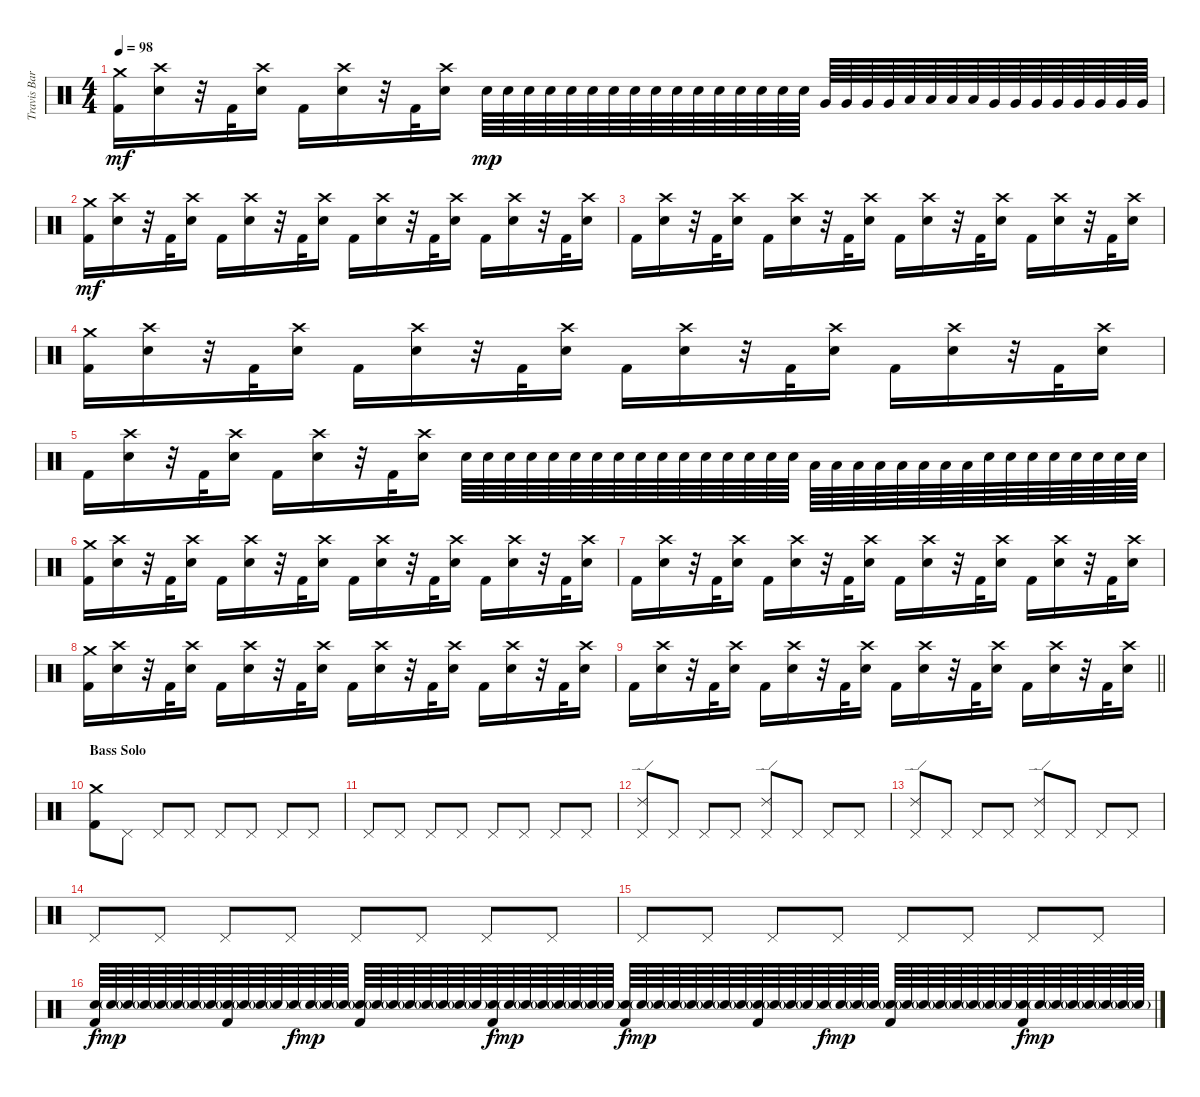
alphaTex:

\track ("Travis Barker" "Travis Bar") {instrument percussion}
\staff {score}
\articulation defaults
\ts (4 4)
\tempo 98
\clef neutral
\ks c
("Crash medium (hit)" "Kick (hit) 2").16{dy mf} ("Crash high (hit)" "Electric Snare (hit)").16 r.32 "Kick (hit) 2".32 ("Crash high (hit)" "Electric Snare (hit)").16 "Kick (hit) 2".16 ("Crash high (hit)" "Electric Snare (hit)").16 r.32 "Kick (hit) 2".32 ("Crash high (hit)" "Electric Snare (hit)").16 "Electric Snare (hit)".64{dy mp} "Electric Snare (hit)".64 "Electric Snare (hit)".64 "Electric Snare (hit)".64 "Electric Snare (hit)".64 "Electric Snare (hit)".64 "Electric Snare (hit)".64 "Electric Snare (hit)".64 "Electric Snare (hit)".64 "Electric Snare (hit)".64 "Electric Snare (hit)".64 "Electric Snare (hit)".64 "Electric Snare (hit)".64 "Electric Snare (hit)".64 "Electric Snare (hit)".64 "Electric Snare (hit)".64 "Very Low Tom (hit)".64 "Very Low Tom (hit)".64 "Very Low Tom (hit)".64 "Very Low Tom (hit)".64 "Low Tom (hit)".64 "Low Tom (hit)".64 "Low Tom (hit)".64 "Low Tom (hit)".64 "Very Low Tom (hit)".64 "Very Low Tom (hit)".64 "Very Low Tom (hit)".64 "Very Low Tom (hit)".64 "Very Low Tom (hit)".64 "Very Low Tom (hit)".64 "Very Low Tom (hit)".64 "Very Low Tom (hit)".64 |
("Crash medium (hit)" "Kick (hit) 2").16{dy mf} ("Crash high (hit)" "Electric Snare (hit)").16 r.32 "Kick (hit) 2".32 ("Crash high (hit)" "Electric Snare (hit)").16 "Kick (hit) 2".16 ("Crash high (hit)" "Electric Snare (hit)").16 r.32 "Kick (hit) 2".32 ("Crash high (hit)" "Electric Snare (hit)").16 "Kick (hit) 2".16 ("Crash high (hit)" "Electric Snare (hit)").16 r.32 "Kick (hit) 2".32 ("Crash high (hit)" "Electric Snare (hit)").16 "Kick (hit) 2".16 ("Crash high (hit)" "Electric Snare (hit)").16 r.32 "Kick (hit) 2".32 ("Crash high (hit)" "Electric Snare (hit)").16 |
"Kick (hit) 2".16 ("Crash high (hit)" "Electric Snare (hit)").16 r.32 "Kick (hit) 2".32 ("Crash high (hit)" "Electric Snare (hit)").16 "Kick (hit) 2".16 ("Crash high (hit)" "Electric Snare (hit)").16 r.32 "Kick (hit) 2".32 ("Crash high (hit)" "Electric Snare (hit)").16 "Kick (hit) 2".16 ("Crash high (hit)" "Electric Snare (hit)").16 r.32 "Kick (hit) 2".32 ("Crash high (hit)" "Electric Snare (hit)").16 "Kick (hit) 2".16 ("Crash high (hit)" "Electric Snare (hit)").16 r.32 "Kick (hit) 2".32 ("Crash high (hit)" "Electric Snare (hit)").16 |
("Crash medium (hit)" "Kick (hit) 2").16 ("Crash high (hit)" "Electric Snare (hit)").16 r.32 "Kick (hit) 2".32 ("Crash high (hit)" "Electric Snare (hit)").16 "Kick (hit) 2".16 ("Crash high (hit)" "Electric Snare (hit)").16 r.32 "Kick (hit) 2".32 ("Crash high (hit)" "Electric Snare (hit)").16 "Kick (hit) 2".16 ("Crash high (hit)" "Electric Snare (hit)").16 r.32 "Kick (hit) 2".32 ("Crash high (hit)" "Electric Snare (hit)").16 "Kick (hit) 2".16 ("Crash high (hit)" "Electric Snare (hit)").16 r.32 "Kick (hit) 2".32 ("Crash high (hit)" "Electric Snare (hit)").16 |
"Kick (hit) 2".16 ("Crash high (hit)" "Electric Snare (hit)").16 r.32 "Kick (hit) 2".32 ("Crash high (hit)" "Electric Snare (hit)").16 "Kick (hit) 2".16 ("Crash high (hit)" "Electric Snare (hit)").16 r.32 "Kick (hit) 2".32 ("Crash high (hit)" "Electric Snare (hit)").16 "Electric Snare (hit)".64 "Electric Snare (hit)".64 "Electric Snare (hit)".64 "Electric Snare (hit)".64 "Electric Snare (hit)".64 "Electric Snare (hit)".64 "Electric Snare (hit)".64 "Electric Snare (hit)".64 "Electric Snare (hit)".64 "Electric Snare (hit)".64 "Electric Snare (hit)".64 "Electric Snare (hit)".64 "Electric Snare (hit)".64 "Electric Snare (hit)".64 "Electric Snare (hit)".64 "Electric Snare (hit)".64 "Low Tom (hit)".64 "Low Tom (hit)".64 "Low Tom (hit)".64 "Low Tom (hit)".64 "Low Tom (hit)".64 "Low Tom (hit)".64 "Low Tom (hit)".64 "Low Tom (hit)".64 "Electric Snare (hit)".64 "Electric Snare (hit)".64 "Electric Snare (hit)".64 "Electric Snare (hit)".64 "Electric Snare (hit)".64 "Electric Snare (hit)".64 "Electric Snare (hit)".64 "Electric Snare (hit)".64 |
("Crash medium (hit)" "Kick (hit) 2").16 ("Crash high (hit)" "Electric Snare (hit)").16 r.32 "Kick (hit) 2".32 ("Crash high (hit)" "Electric Snare (hit)").16 "Kick (hit) 2".16 ("Crash high (hit)" "Electric Snare (hit)").16 r.32 "Kick (hit) 2".32 ("Crash high (hit)" "Electric Snare (hit)").16 "Kick (hit) 2".16 ("Crash high (hit)" "Electric Snare (hit)").16 r.32 "Kick (hit) 2".32 ("Crash high (hit)" "Electric Snare (hit)").16 "Kick (hit) 2".16 ("Crash high (hit)" "Electric Snare (hit)").16 r.32 "Kick (hit) 2".32 ("Crash high (hit)" "Electric Snare (hit)").16 |
"Kick (hit) 2".16 ("Crash high (hit)" "Electric Snare (hit)").16 r.32 "Kick (hit) 2".32 ("Crash high (hit)" "Electric Snare (hit)").16 "Kick (hit) 2".16 ("Crash high (hit)" "Electric Snare (hit)").16 r.32 "Kick (hit) 2".32 ("Crash high (hit)" "Electric Snare (hit)").16 "Kick (hit) 2".16 ("Crash high (hit)" "Electric Snare (hit)").16 r.32 "Kick (hit) 2".32 ("Crash high (hit)" "Electric Snare (hit)").16 "Kick (hit) 2".16 ("Crash high (hit)" "Electric Snare (hit)").16 r.32 "Kick (hit) 2".32 ("Crash high (hit)" "Electric Snare (hit)").16 |
("Crash medium (hit)" "Kick (hit) 2").16 ("Crash high (hit)" "Electric Snare (hit)").16 r.32 "Kick (hit) 2".32 ("Crash high (hit)" "Electric Snare (hit)").16 "Kick (hit) 2".16 ("Crash high (hit)" "Electric Snare (hit)").16 r.32 "Kick (hit) 2".32 ("Crash high (hit)" "Electric Snare (hit)").16 "Kick (hit) 2".16 ("Crash high (hit)" "Electric Snare (hit)").16 r.32 "Kick (hit) 2".32 ("Crash high (hit)" "Electric Snare (hit)").16 "Kick (hit) 2".16 ("Crash high (hit)" "Electric Snare (hit)").16 r.32 "Kick (hit) 2".32 ("Crash high (hit)" "Electric Snare (hit)").16 |
\barLineRight lightlight "Kick (hit) 2".16
("Crash high (hit)" "Electric Snare (hit)").16 r.32 "Kick (hit) 2".32 ("Crash high (hit)" "Electric Snare (hit)").16 "Kick (hit) 2".16 ("Crash high (hit)" "Electric Snare (hit)").16 r.32 "Kick (hit) 2".32 ("Crash high (hit)" "Electric Snare (hit)").16 "Kick (hit) 2".16 ("Crash high (hit)" "Electric Snare (hit)").16 r.32 "Kick (hit) 2".32 ("Crash high (hit)" "Electric Snare (hit)").16 "Kick (hit) 2".16 ("Crash high (hit)" "Electric Snare (hit)").16 r.32 "Kick (hit) 2".32 ("Crash high (hit)" "Electric Snare (hit)").16 |
\section ("" "Bass Solo")
("Crash medium (hit)" "Kick (hit) 2").8 "Pedal Hi-Hat (hit)".8 "Pedal Hi-Hat (hit)".8 "Pedal Hi-Hat (hit)".8 "Pedal Hi-Hat (hit)".8 "Pedal Hi-Hat (hit)".8 "Pedal Hi-Hat (hit)".8 "Pedal Hi-Hat (hit)".8 |
"Pedal Hi-Hat (hit)".8 "Pedal Hi-Hat (hit)".8 "Pedal Hi-Hat (hit)".8 "Pedal Hi-Hat (hit)".8 "Pedal Hi-Hat (hit)".8 "Pedal Hi-Hat (hit)".8 "Pedal Hi-Hat (hit)".8 "Pedal Hi-Hat (hit)".8 |
("Pedal Hi-Hat (hit)" "Ride (edge) 2").8 "Pedal Hi-Hat (hit)".8 "Pedal Hi-Hat (hit)".8 "Pedal Hi-Hat (hit)".8 ("Pedal Hi-Hat (hit)" "Ride (edge) 2").8 "Pedal Hi-Hat (hit)".8 "Pedal Hi-Hat (hit)".8 "Pedal Hi-Hat (hit)".8 |
("Pedal Hi-Hat (hit)" "Ride (edge) 2").8 "Pedal Hi-Hat (hit)".8 "Pedal Hi-Hat (hit)".8 "Pedal Hi-Hat (hit)".8 ("Pedal Hi-Hat (hit)" "Ride (edge) 2").8 "Pedal Hi-Hat (hit)".8 "Pedal Hi-Hat (hit)".8 "Pedal Hi-Hat (hit)".8 |
"Pedal Hi-Hat (hit)".8 "Pedal Hi-Hat (hit)".8 "Pedal Hi-Hat (hit)".8 "Pedal Hi-Hat (hit)".8 "Pedal Hi-Hat (hit)".8 "Pedal Hi-Hat (hit)".8 "Pedal Hi-Hat (hit)".8 "Pedal Hi-Hat (hit)".8 |
"Pedal Hi-Hat (hit)".8 "Pedal Hi-Hat (hit)".8 "Pedal Hi-Hat (hit)".8 "Pedal Hi-Hat (hit)".8 "Pedal Hi-Hat (hit)".8 "Pedal Hi-Hat (hit)".8 "Pedal Hi-Hat (hit)".8 "Pedal Hi-Hat (hit)".8 |
("Electric Snare (hit)" "Kick (hit) 2").64{dy f volume 10} "Electric Snare (hit)"{g}.64{dy mp} "Electric Snare (hit)"{g}.64 "Electric Snare (hit)"{g}.64 "Electric Snare (hit)"{g}.64 "Electric Snare (hit)"{g}.64 "Electric Snare (hit)"{g}.64 "Electric Snare (hit)"{g}.64 ("Electric Snare (hit)"{g} "Kick (hit) 2").64 "Electric Snare (hit)"{g}.64 "Electric Snare (hit)"{g}.64 "Electric Snare (hit)"{g}.64 "Electric Snare (hit)".64{dy f} "Electric Snare (hit)"{g}.64{dy mp} "Electric Snare (hit)"{g}.64 "Electric Snare (hit)"{g}.64 ("Electric Snare (hit)"{g} "Kick (hit) 2").64 "Electric Snare (hit)"{g}.64 "Electric Snare (hit)"{g}.64 "Electric Snare (hit)"{g}.64 "Electric Snare (hit)"{g}.64 "Electric Snare (hit)"{g}.64 "Electric Snare (hit)"{g}.64 "Electric Snare (hit)"{g}.64 ("Electric Snare (hit)" "Kick (hit) 2").64{dy f} "Electric Snare (hit)"{g}.64{dy mp} "Electric Snare (hit)"{g}.64 "Electric Snare (hit)"{g}.64 "Electric Snare (hit)"{g}.64 "Electric Snare (hit)"{g}.64 "Electric Snare (hit)"{g}.64 "Electric Snare (hit)"{g}.64 ("Electric Snare (hit)" "Kick (hit) 2").64{dy f} "Electric Snare (hit)"{g}.64{dy mp} "Electric Snare (hit)"{g}.64 "Electric Snare (hit)"{g}.64 "Electric Snare (hit)"{g}.64 "Electric Snare (hit)"{g}.64 "Electric Snare (hit)"{g}.64 "Electric Snare (hit)"{g}.64 ("Electric Snare (hit)"{g} "Kick (hit) 2").64 "Electric Snare (hit)"{g}.64 "Electric Snare (hit)"{g}.64 "Electric Snare (hit)"{g}.64 "Electric Snare (hit)".64{dy f} "Electric Snare (hit)"{g}.64{dy mp} "Electric Snare (hit)"{g}.64 "Electric Snare (hit)"{g}.64 ("Electric Snare (hit)"{g} "Kick (hit) 2").64 "Electric Snare (hit)"{g}.64 "Electric Snare (hit)"{g}.64 "Electric Snare (hit)"{g}.64 "Electric Snare (hit)"{g}.64 "Electric Snare (hit)"{g}.64 "Electric Snare (hit)"{g}.64 "Electric Snare (hit)"{g}.64 ("Electric Snare (hit)" "Kick (hit) 2").64{dy f} "Electric Snare (hit)"{g}.64{dy mp} "Electric Snare (hit)"{g}.64 "Electric Snare (hit)"{g}.64 "Electric Snare (hit)"{g}.64 "Electric Snare (hit)"{g}.64 "Electric Snare (hit)"{g}.64 "Electric Snare (hit)"{g}.64
